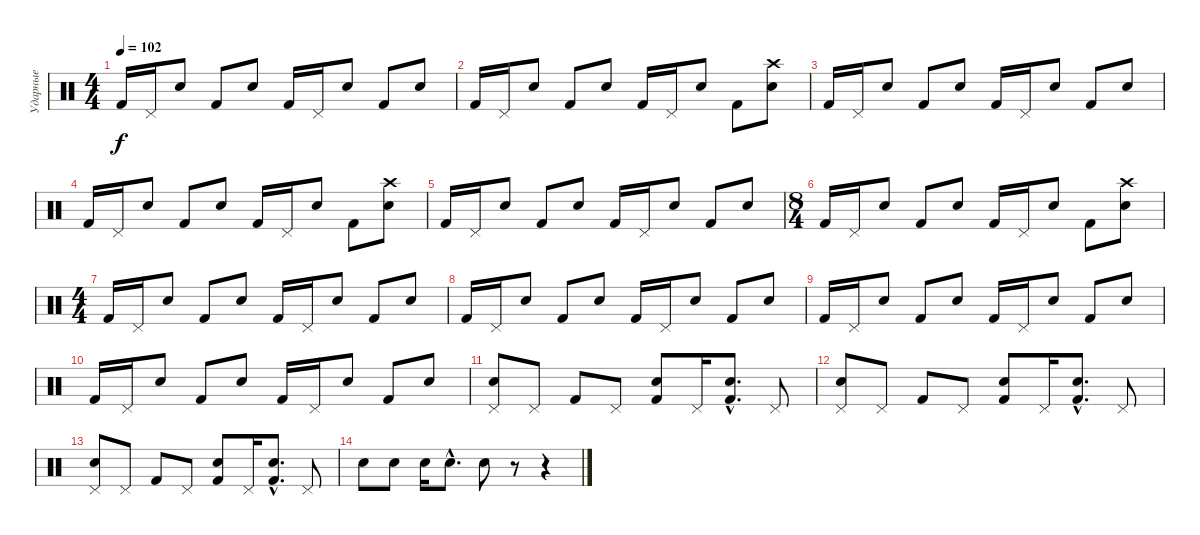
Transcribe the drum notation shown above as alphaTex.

\track ("Ударные" "Ударные") {instrument percussion}
\staff {score}
\articulation defaults
\ts (4 4)
\tempo 102
\clef neutral
\ks c "Kick (hit) 2".16{dy f} "Pedal Hi-Hat (hit)".16 "Snare (hit) 2".8 "Kick (hit) 2".8 "Snare (hit) 2".8 "Kick (hit) 2".16 "Pedal Hi-Hat (hit)".16 "Snare (hit) 2".8 "Kick (hit) 2".8 "Snare (hit) 2".8
|
"Kick (hit) 2".16 "Pedal Hi-Hat (hit)".16 "Snare (hit) 2".8 "Kick (hit) 2".8 "Snare (hit) 2".8 "Kick (hit) 2".16 "Pedal Hi-Hat (hit)".16 "Snare (hit) 2".8 "Kick (hit) 2".8 ("Crash high (hit)" "Snare (hit) 2").8 |
"Kick (hit) 2".16 "Pedal Hi-Hat (hit)".16 "Snare (hit) 2".8 "Kick (hit) 2".8 "Snare (hit) 2".8 "Kick (hit) 2".16 "Pedal Hi-Hat (hit)".16 "Snare (hit) 2".8 "Kick (hit) 2".8 "Snare (hit) 2".8 |
"Kick (hit) 2".16 "Pedal Hi-Hat (hit)".16 "Snare (hit) 2".8 "Kick (hit) 2".8 "Snare (hit) 2".8 "Kick (hit) 2".16 "Pedal Hi-Hat (hit)".16 "Snare (hit) 2".8 "Kick (hit) 2".8 ("Crash high (hit)" "Snare (hit) 2").8 |
"Kick (hit) 2".16 "Pedal Hi-Hat (hit)".16 "Snare (hit) 2".8 "Kick (hit) 2".8 "Snare (hit) 2".8 "Kick (hit) 2".16 "Pedal Hi-Hat (hit)".16 "Snare (hit) 2".8 "Kick (hit) 2".8 "Snare (hit) 2".8 |
\ts (8 4)
"Kick (hit) 2".16 "Pedal Hi-Hat (hit)".16 "Snare (hit) 2".8 "Kick (hit) 2".8 "Snare (hit) 2".8 "Kick (hit) 2".16 "Pedal Hi-Hat (hit)".16 "Snare (hit) 2".8 "Kick (hit) 2".8 ("Crash high (hit)" "Snare (hit) 2").8 |
\ts (4 4)
"Kick (hit) 2".16 "Pedal Hi-Hat (hit)".16 "Snare (hit) 2".8 "Kick (hit) 2".8 "Snare (hit) 2".8 "Kick (hit) 2".16 "Pedal Hi-Hat (hit)".16 "Snare (hit) 2".8 "Kick (hit) 2".8 "Snare (hit) 2".8 |
"Kick (hit) 2".16 "Pedal Hi-Hat (hit)".16 "Snare (hit) 2".8 "Kick (hit) 2".8 "Snare (hit) 2".8 "Kick (hit) 2".16 "Pedal Hi-Hat (hit)".16 "Snare (hit) 2".8 "Kick (hit) 2".8 "Snare (hit) 2".8 |
"Kick (hit) 2".16 "Pedal Hi-Hat (hit)".16 "Snare (hit) 2".8 "Kick (hit) 2".8 "Snare (hit) 2".8 "Kick (hit) 2".16 "Pedal Hi-Hat (hit)".16 "Snare (hit) 2".8 "Kick (hit) 2".8 "Snare (hit) 2".8 |
"Kick (hit) 2".16 "Pedal Hi-Hat (hit)".16 "Snare (hit) 2".8 "Kick (hit) 2".8 "Snare (hit) 2".8 "Kick (hit) 2".16 "Pedal Hi-Hat (hit)".16 "Snare (hit) 2".8 "Kick (hit) 2".8 "Snare (hit) 2".8 |
("Snare (hit) 2" "Pedal Hi-Hat (hit)").8 "Pedal Hi-Hat (hit)".8 "Kick (hit) 2".8 "Pedal Hi-Hat (hit)".8 ("Snare (hit) 2" "Kick (hit) 2").8 "Pedal Hi-Hat (hit)".16 ("Snare (hit) 2"{hac} "Kick (hit) 2"{hac}).8{d} "Pedal Hi-Hat (hit)".8 |
("Snare (hit) 2" "Pedal Hi-Hat (hit)").8 "Pedal Hi-Hat (hit)".8 "Kick (hit) 2".8 "Pedal Hi-Hat (hit)".8 ("Snare (hit) 2" "Kick (hit) 2").8 "Pedal Hi-Hat (hit)".16 ("Snare (hit) 2"{hac} "Kick (hit) 2"{hac}).8{d} "Pedal Hi-Hat (hit)".8 |
("Snare (hit) 2" "Pedal Hi-Hat (hit)").8 "Pedal Hi-Hat (hit)".8 "Kick (hit) 2".8 "Pedal Hi-Hat (hit)".8 ("Snare (hit) 2" "Kick (hit) 2").8 "Pedal Hi-Hat (hit)".16 ("Snare (hit) 2"{hac} "Kick (hit) 2"{hac}).8{d} "Pedal Hi-Hat (hit)".8 |
"Snare (hit) 2".8 "Snare (hit) 2".8 "Snare (hit) 2".16 "Snare (hit) 2"{hac}.8{d} "Snare (hit) 2".8 r.8 r.4
